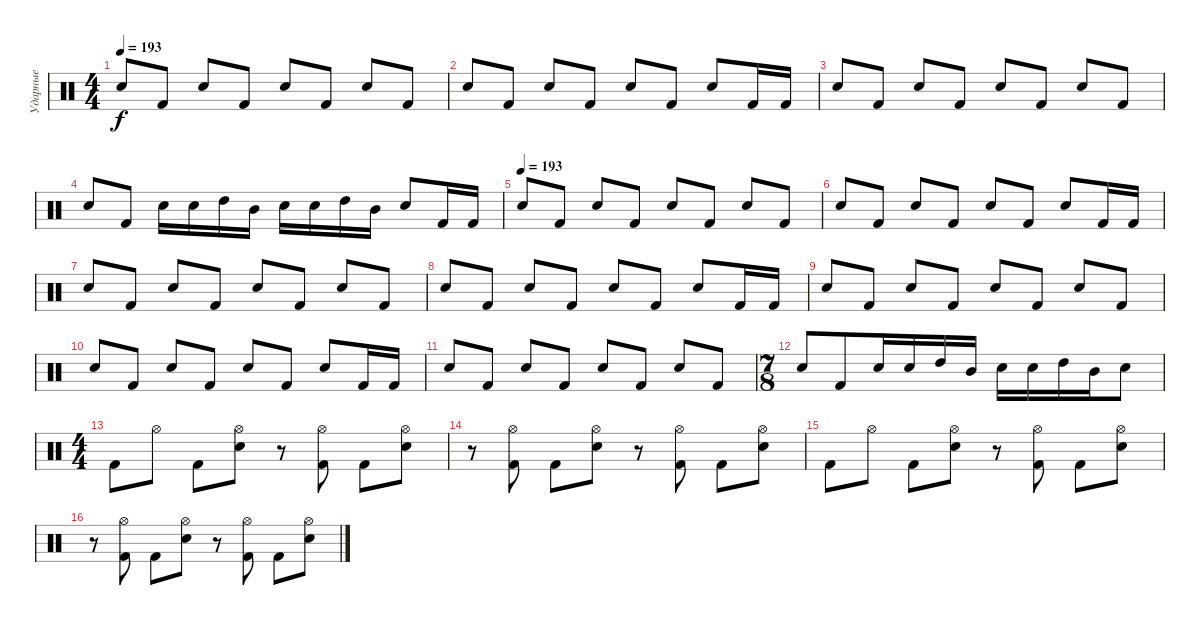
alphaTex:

\track ("Ударные" "Ударные") {instrument percussion}
\staff {score}
\articulation defaults
\ts (4 4)
\tempo 193
\clef neutral
\ks c "Electric Snare (hit)".8{dy f} "Kick (hit) 2".8 "Electric Snare (hit)".8 "Kick (hit) 2".8 "Electric Snare (hit)".8 "Kick (hit) 2".8 "Electric Snare (hit)".8 "Kick (hit) 2".8
|
"Electric Snare (hit)".8 "Kick (hit) 2".8 "Electric Snare (hit)".8 "Kick (hit) 2".8 "Electric Snare (hit)".8 "Kick (hit) 2".8 "Electric Snare (hit)".8 "Kick (hit) 2".16 "Kick (hit) 2".16 |
"Electric Snare (hit)".8 "Kick (hit) 2".8 "Electric Snare (hit)".8 "Kick (hit) 2".8 "Electric Snare (hit)".8 "Kick (hit) 2".8 "Electric Snare (hit)".8 "Kick (hit) 2".8 |
"Electric Snare (hit)".8 "Kick (hit) 2".8 "Electric Snare (hit)".16 "Electric Snare (hit)".16 "High Tom (hit)".16 "Mid Tom (hit)".16 "Electric Snare (hit)".16 "Electric Snare (hit)".16 "High Tom (hit)".16 "Mid Tom (hit)".16 "Electric Snare (hit)".8 "Kick (hit) 2".16 "Kick (hit) 2".16 |
\tempo (193)
"Electric Snare (hit)".8 "Kick (hit) 2".8 "Electric Snare (hit)".8 "Kick (hit) 2".8 "Electric Snare (hit)".8 "Kick (hit) 2".8 "Electric Snare (hit)".8 "Kick (hit) 2".8 |
"Electric Snare (hit)".8 "Kick (hit) 2".8 "Electric Snare (hit)".8 "Kick (hit) 2".8 "Electric Snare (hit)".8 "Kick (hit) 2".8 "Electric Snare (hit)".8 "Kick (hit) 2".16 "Kick (hit) 2".16 |
"Electric Snare (hit)".8 "Kick (hit) 2".8 "Electric Snare (hit)".8 "Kick (hit) 2".8 "Electric Snare (hit)".8 "Kick (hit) 2".8 "Electric Snare (hit)".8 "Kick (hit) 2".8 |
"Electric Snare (hit)".8 "Kick (hit) 2".8 "Electric Snare (hit)".8 "Kick (hit) 2".8 "Electric Snare (hit)".8 "Kick (hit) 2".8 "Electric Snare (hit)".8 "Kick (hit) 2".16 "Kick (hit) 2".16 |
"Electric Snare (hit)".8 "Kick (hit) 2".8 "Electric Snare (hit)".8 "Kick (hit) 2".8 "Electric Snare (hit)".8 "Kick (hit) 2".8 "Electric Snare (hit)".8 "Kick (hit) 2".8 |
"Electric Snare (hit)".8 "Kick (hit) 2".8 "Electric Snare (hit)".8 "Kick (hit) 2".8 "Electric Snare (hit)".8 "Kick (hit) 2".8 "Electric Snare (hit)".8 "Kick (hit) 2".16 "Kick (hit) 2".16 |
"Electric Snare (hit)".8 "Kick (hit) 2".8 "Electric Snare (hit)".8 "Kick (hit) 2".8 "Electric Snare (hit)".8 "Kick (hit) 2".8 "Electric Snare (hit)".8 "Kick (hit) 2".8 |
\ts (7 8)
"Electric Snare (hit)".8 "Kick (hit) 2".8 "Electric Snare (hit)".16 "Electric Snare (hit)".16 "High Tom (hit)".16 "Mid Tom (hit)".16 "Electric Snare (hit)".16 "Electric Snare (hit)".16 "High Tom (hit)".16 "Mid Tom (hit)".16 "Electric Snare (hit)".8 |
\ts (4 4)
"Kick (hit) 2".8 "Hi-Hat (open)".8 "Kick (hit) 2".8 ("Hi-Hat (open)" "Electric Snare (hit)").8 r.8 ("Hi-Hat (open)" "Kick (hit) 2").8 "Kick (hit) 2".8 ("Hi-Hat (open)" "Electric Snare (hit)").8 |
r.8 ("Hi-Hat (open)" "Kick (hit) 2").8 "Kick (hit) 2".8 ("Hi-Hat (open)" "Electric Snare (hit)").8 r.8 ("Hi-Hat (open)" "Kick (hit) 2").8 "Kick (hit) 2".8 ("Hi-Hat (open)" "Electric Snare (hit)").8 |
"Kick (hit) 2".8 "Hi-Hat (open)".8 "Kick (hit) 2".8 ("Hi-Hat (open)" "Electric Snare (hit)").8 r.8 ("Hi-Hat (open)" "Kick (hit) 2").8 "Kick (hit) 2".8 ("Hi-Hat (open)" "Electric Snare (hit)").8 |
r.8 ("Hi-Hat (open)" "Kick (hit) 2").8 "Kick (hit) 2".8 ("Hi-Hat (open)" "Electric Snare (hit)").8 r.8 ("Hi-Hat (open)" "Kick (hit) 2").8 "Kick (hit) 2".8 ("Hi-Hat (open)" "Electric Snare (hit)").8
